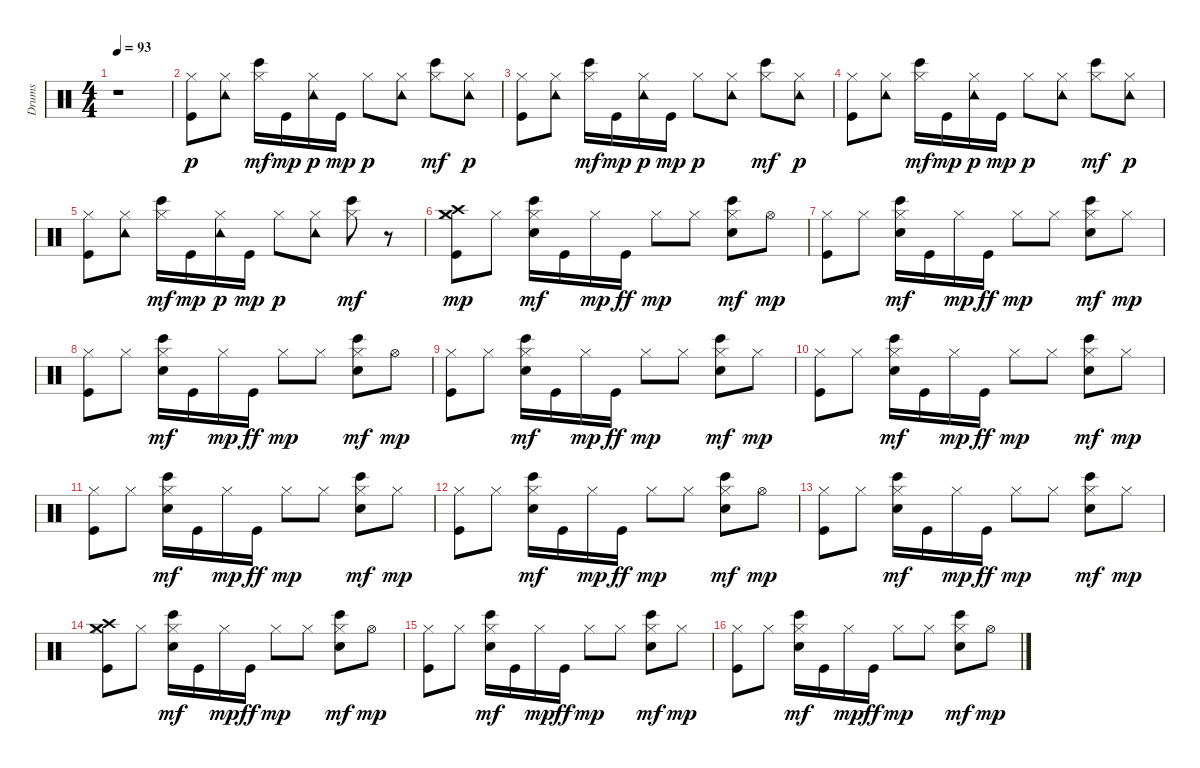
\track ("Drums" "Drums") {instrument percussion}
\staff {score}
\articulation defaults
\ts (4 4)
\tempo 93
\clef neutral
\ks c
r.1{dy p} |
("Kick (hit)" "Hi-Hat (closed)").8 ("Hi-Hat (closed)" "Tambourine (hit)").8 ("Hi-Hat (closed)" "Bongo High (hit)").16{dy mf} "Kick (hit)".16{dy mp} ("Hi-Hat (closed)" "Tambourine (hit)").16{dy p} "Kick (hit)".16{dy mp} "Hi-Hat (closed)".8{dy p} ("Hi-Hat (closed)" "Tambourine (hit)").8 ("Hi-Hat (closed)" "Bongo High (hit)").8{dy mf} ("Hi-Hat (closed)" "Tambourine (hit)").8{dy p} |
("Kick (hit)" "Hi-Hat (closed)").8 ("Hi-Hat (closed)" "Tambourine (hit)").8 ("Hi-Hat (closed)" "Bongo High (hit)").16{dy mf} "Kick (hit)".16{dy mp} ("Hi-Hat (closed)" "Tambourine (hit)").16{dy p} "Kick (hit)".16{dy mp} "Hi-Hat (closed)".8{dy p} ("Hi-Hat (closed)" "Tambourine (hit)").8 ("Hi-Hat (closed)" "Bongo High (hit)").8{dy mf} ("Hi-Hat (closed)" "Tambourine (hit)").8{dy p} |
("Kick (hit)" "Hi-Hat (closed)").8 ("Hi-Hat (closed)" "Tambourine (hit)").8 ("Hi-Hat (closed)" "Bongo High (hit)").16{dy mf} "Kick (hit)".16{dy mp} ("Hi-Hat (closed)" "Tambourine (hit)").16{dy p} "Kick (hit)".16{dy mp} "Hi-Hat (closed)".8{dy p} ("Hi-Hat (closed)" "Tambourine (hit)").8 ("Hi-Hat (closed)" "Bongo High (hit)").8{dy mf} ("Hi-Hat (closed)" "Tambourine (hit)").8{dy p} |
("Kick (hit)" "Hi-Hat (closed)").8 ("Hi-Hat (closed)" "Tambourine (hit)").8 ("Hi-Hat (closed)" "Bongo High (hit)").16{dy mf} "Kick (hit)".16{dy mp} ("Hi-Hat (closed)" "Tambourine (hit)").16{dy p} "Kick (hit)".16{dy mp} "Hi-Hat (closed)".8{dy p} ("Hi-Hat (closed)" "Tambourine (hit)").8 ("Hi-Hat (closed)" "Bongo High (hit)").8{dy mf} r.8 |
("Crash high (hit)" "Crash medium (hit)" "Kick (hit)" "Hi-Hat (closed)").8{dy mp} "Hi-Hat (closed)".8 ("Hi-Hat (closed)" "Electric Snare (hit)" "Bongo High (hit)").16{dy mf} "Kick (hit)".16 "Hi-Hat (closed)".16{dy mp} "Kick (hit)".16{dy ff} "Hi-Hat (closed)".8{dy mp} "Hi-Hat (closed)".8 ("Hi-Hat (closed)" "Electric Snare (hit)" "Bongo High (hit)").8{dy mf} "Hi-Hat (open)".8{dy mp} |
("Kick (hit)" "Hi-Hat (closed)").8 "Hi-Hat (closed)".8 ("Hi-Hat (closed)" "Electric Snare (hit)" "Bongo High (hit)").16{dy mf} "Kick (hit)".16 "Hi-Hat (closed)".16{dy mp} "Kick (hit)".16{dy ff} "Hi-Hat (closed)".8{dy mp} "Hi-Hat (closed)".8 ("Hi-Hat (closed)" "Electric Snare (hit)" "Bongo High (hit)").8{dy mf} "Hi-Hat (closed)".8{dy mp} |
("Kick (hit)" "Hi-Hat (closed)").8 "Hi-Hat (closed)".8 ("Hi-Hat (closed)" "Electric Snare (hit)" "Bongo High (hit)").16{dy mf} "Kick (hit)".16 "Hi-Hat (closed)".16{dy mp} "Kick (hit)".16{dy ff} "Hi-Hat (closed)".8{dy mp} "Hi-Hat (closed)".8 ("Hi-Hat (closed)" "Electric Snare (hit)" "Bongo High (hit)").8{dy mf} "Hi-Hat (open)".8{dy mp} |
("Kick (hit)" "Hi-Hat (closed)").8 "Hi-Hat (closed)".8 ("Hi-Hat (closed)" "Electric Snare (hit)" "Bongo High (hit)").16{dy mf} "Kick (hit)".16 "Hi-Hat (closed)".16{dy mp} "Kick (hit)".16{dy ff} "Hi-Hat (closed)".8{dy mp} "Hi-Hat (closed)".8 ("Hi-Hat (closed)" "Electric Snare (hit)" "Bongo High (hit)").8{dy mf} "Hi-Hat (closed)".8{dy mp} |
("Kick (hit)" "Hi-Hat (closed)").8 "Hi-Hat (closed)".8 ("Hi-Hat (closed)" "Electric Snare (hit)" "Bongo High (hit)").16{dy mf} "Kick (hit)".16 "Hi-Hat (closed)".16{dy mp} "Kick (hit)".16{dy ff} "Hi-Hat (closed)".8{dy mp} "Hi-Hat (closed)".8 ("Hi-Hat (closed)" "Electric Snare (hit)" "Bongo High (hit)").8{dy mf} "Hi-Hat (closed)".8{dy mp} |
("Kick (hit)" "Hi-Hat (closed)").8 "Hi-Hat (closed)".8 ("Hi-Hat (closed)" "Electric Snare (hit)" "Bongo High (hit)").16{dy mf} "Kick (hit)".16 "Hi-Hat (closed)".16{dy mp} "Kick (hit)".16{dy ff} "Hi-Hat (closed)".8{dy mp} "Hi-Hat (closed)".8 ("Hi-Hat (closed)" "Electric Snare (hit)" "Bongo High (hit)").8{dy mf} "Hi-Hat (closed)".8{dy mp} |
("Kick (hit)" "Hi-Hat (closed)").8 "Hi-Hat (closed)".8 ("Hi-Hat (closed)" "Electric Snare (hit)" "Bongo High (hit)").16{dy mf} "Kick (hit)".16 "Hi-Hat (closed)".16{dy mp} "Kick (hit)".16{dy ff} "Hi-Hat (closed)".8{dy mp} "Hi-Hat (closed)".8 ("Hi-Hat (closed)" "Electric Snare (hit)" "Bongo High (hit)").8{dy mf} "Hi-Hat (open)".8{dy mp} |
("Kick (hit)" "Hi-Hat (closed)").8 "Hi-Hat (closed)".8 ("Hi-Hat (closed)" "Electric Snare (hit)" "Bongo High (hit)").16{dy mf} "Kick (hit)".16 "Hi-Hat (closed)".16{dy mp} "Kick (hit)".16{dy ff} "Hi-Hat (closed)".8{dy mp} "Hi-Hat (closed)".8 ("Hi-Hat (closed)" "Electric Snare (hit)" "Bongo High (hit)").8{dy mf} "Hi-Hat (closed)".8{dy mp} |
("Crash high (hit)" "Crash medium (hit)" "Kick (hit)" "Hi-Hat (closed)").8 "Hi-Hat (closed)".8 ("Hi-Hat (closed)" "Electric Snare (hit)" "Bongo High (hit)").16{dy mf} "Kick (hit)".16 "Hi-Hat (closed)".16{dy mp} "Kick (hit)".16{dy ff} "Hi-Hat (closed)".8{dy mp} "Hi-Hat (closed)".8 ("Hi-Hat (closed)" "Electric Snare (hit)" "Bongo High (hit)").8{dy mf} "Hi-Hat (open)".8{dy mp} |
("Kick (hit)" "Hi-Hat (closed)").8 "Hi-Hat (closed)".8 ("Hi-Hat (closed)" "Electric Snare (hit)" "Bongo High (hit)").16{dy mf} "Kick (hit)".16 "Hi-Hat (closed)".16{dy mp} "Kick (hit)".16{dy ff} "Hi-Hat (closed)".8{dy mp} "Hi-Hat (closed)".8 ("Hi-Hat (closed)" "Electric Snare (hit)" "Bongo High (hit)").8{dy mf} "Hi-Hat (closed)".8{dy mp} |
("Kick (hit)" "Hi-Hat (closed)").8 "Hi-Hat (closed)".8 ("Hi-Hat (closed)" "Electric Snare (hit)" "Bongo High (hit)").16{dy mf} "Kick (hit)".16 "Hi-Hat (closed)".16{dy mp} "Kick (hit)".16{dy ff} "Hi-Hat (closed)".8{dy mp} "Hi-Hat (closed)".8 ("Hi-Hat (closed)" "Electric Snare (hit)" "Bongo High (hit)").8{dy mf} "Hi-Hat (open)".8{dy mp}
